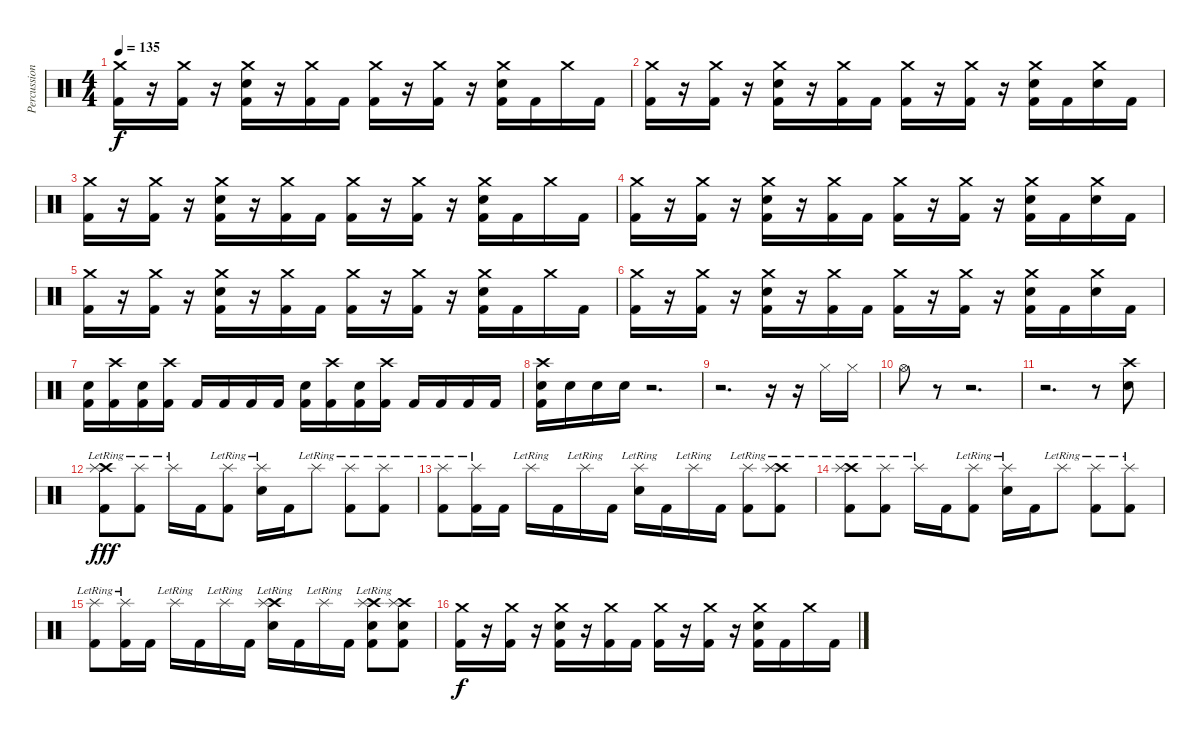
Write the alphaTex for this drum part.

\track ("Percussion" "Percussion") {instrument percussion}
\staff {score}
\articulation defaults
\ts (4 4)
\tempo 135
\clef neutral
\ks c
("Crash medium (hit)" "Kick (hit) 2").16{dy f} r.16 ("Crash medium (hit)" "Kick (hit) 2").16 r.16 ("Crash medium (hit)" "Electric Snare (hit)" "Kick (hit) 2").16 r.16 ("Crash medium (hit)" "Kick (hit) 2").16 "Kick (hit) 2".16 ("Crash medium (hit)" "Kick (hit) 2").16 r.16 ("Crash medium (hit)" "Kick (hit) 2").16 r.16 ("Crash medium (hit)" "Electric Snare (hit)" "Kick (hit) 2").16 "Kick (hit) 2".16 "Crash medium (hit)".16 "Kick (hit) 2".16 |
("Crash medium (hit)" "Kick (hit) 2").16 r.16 ("Crash medium (hit)" "Kick (hit) 2").16 r.16 ("Crash medium (hit)" "Electric Snare (hit)" "Kick (hit) 2").16 r.16 ("Crash medium (hit)" "Kick (hit) 2").16 "Kick (hit) 2".16 ("Crash medium (hit)" "Kick (hit) 2").16 r.16 ("Crash medium (hit)" "Kick (hit) 2").16 r.16 ("Crash medium (hit)" "Electric Snare (hit)" "Kick (hit) 2").16 "Kick (hit) 2".16 ("Crash medium (hit)" "Electric Snare (hit)").16 "Kick (hit) 2".16 |
("Crash medium (hit)" "Kick (hit) 2").16 r.16 ("Crash medium (hit)" "Kick (hit) 2").16 r.16 ("Crash medium (hit)" "Electric Snare (hit)" "Kick (hit) 2").16 r.16 ("Crash medium (hit)" "Kick (hit) 2").16 "Kick (hit) 2".16 ("Crash medium (hit)" "Kick (hit) 2").16 r.16 ("Crash medium (hit)" "Kick (hit) 2").16 r.16 ("Crash medium (hit)" "Electric Snare (hit)" "Kick (hit) 2").16 "Kick (hit) 2".16 "Crash medium (hit)".16 "Kick (hit) 2".16 |
("Crash medium (hit)" "Kick (hit) 2").16 r.16 ("Crash medium (hit)" "Kick (hit) 2").16 r.16 ("Crash medium (hit)" "Electric Snare (hit)" "Kick (hit) 2").16 r.16 ("Crash medium (hit)" "Kick (hit) 2").16 "Kick (hit) 2".16 ("Crash medium (hit)" "Kick (hit) 2").16 r.16 ("Crash medium (hit)" "Kick (hit) 2").16 r.16 ("Crash medium (hit)" "Electric Snare (hit)" "Kick (hit) 2").16 "Kick (hit) 2".16 ("Crash medium (hit)" "Electric Snare (hit)").16 "Kick (hit) 2".16 |
("Crash medium (hit)" "Kick (hit) 2").16 r.16 ("Crash medium (hit)" "Kick (hit) 2").16 r.16 ("Crash medium (hit)" "Electric Snare (hit)" "Kick (hit) 2").16 r.16 ("Crash medium (hit)" "Kick (hit) 2").16 "Kick (hit) 2".16 ("Crash medium (hit)" "Kick (hit) 2").16 r.16 ("Crash medium (hit)" "Kick (hit) 2").16 r.16 ("Crash medium (hit)" "Electric Snare (hit)" "Kick (hit) 2").16 "Kick (hit) 2".16 "Crash medium (hit)".16 "Kick (hit) 2".16 |
("Crash medium (hit)" "Kick (hit) 2").16 r.16 ("Crash medium (hit)" "Kick (hit) 2").16 r.16 ("Crash medium (hit)" "Electric Snare (hit)" "Kick (hit) 2").16 r.16 ("Crash medium (hit)" "Kick (hit) 2").16 "Kick (hit) 2".16 ("Crash medium (hit)" "Kick (hit) 2").16 r.16 ("Crash medium (hit)" "Kick (hit) 2").16 r.16 ("Crash medium (hit)" "Electric Snare (hit)" "Kick (hit) 2").16 "Kick (hit) 2".16 ("Crash medium (hit)" "Electric Snare (hit)").16 "Kick (hit) 2".16 |
("Electric Snare (hit)" "Kick (hit) 2").16 ("Crash high (hit)" "Kick (hit) 2").16 ("Electric Snare (hit)" "Kick (hit) 2").16 ("Crash high (hit)" "Kick (hit) 2").16 "Kick (hit) 2".16 "Kick (hit) 2".16 "Kick (hit) 2".16 "Kick (hit) 2".16 ("Electric Snare (hit)" "Kick (hit) 2").16 ("Crash high (hit)" "Kick (hit) 2").16 ("Electric Snare (hit)" "Kick (hit) 2").16 ("Crash high (hit)" "Kick (hit) 2").16 "Kick (hit) 2".16 "Kick (hit) 2".16 "Kick (hit) 2".16 "Kick (hit) 2".16 |
("Crash high (hit)" "Electric Snare (hit)" "Kick (hit) 2").16 "Electric Snare (hit)".16 "Electric Snare (hit)".16 "Electric Snare (hit)".16 r.2{d} |
r.2{d} r.16 r.16 "Hi-Hat (closed)".16 "Hi-Hat (closed)".16 |
"Hi-Hat (open)".8 r.8 r.2{d} |
r.2{d} r.8 ("Crash high (hit)" "Electric Snare (hit)").8 |
("Crash high (hit)"{lr} "Splash (hit)"{lr} "Kick (hit) 2").8{dy fff} ("Splash (hit)"{lr} "Kick (hit) 2").8 "Splash (hit)"{lr}.16 "Kick (hit) 2".16 ("Splash (hit)"{lr} "Kick (hit) 2").8 ("Splash (hit)"{lr} "Electric Snare (hit)").16 "Kick (hit) 2".16 "Splash (hit)"{lr}.8 ("Splash (hit)"{lr} "Kick (hit) 2").8 ("Splash (hit)"{lr} "Kick (hit) 2").8 |
("Splash (hit)"{lr} "Kick (hit) 2").8 ("Splash (hit)"{lr} "Kick (hit) 2").16 "Kick (hit) 2".16 "Splash (hit)"{lr}.16 "Kick (hit) 2".16 "Splash (hit)"{lr}.16 "Kick (hit) 2".16 ("Splash (hit)"{lr} "Electric Snare (hit)").16 "Kick (hit) 2".16 "Splash (hit)"{lr}.16 "Kick (hit) 2".16 ("Splash (hit)"{lr} "Kick (hit) 2").8 ("Crash high (hit)" "Splash (hit)"{lr} "Kick (hit) 2").8 |
("Crash high (hit)"{lr} "Splash (hit)"{lr} "Kick (hit) 2").8 ("Splash (hit)"{lr} "Kick (hit) 2").8 "Splash (hit)"{lr}.16 "Kick (hit) 2".16 ("Splash (hit)"{lr} "Kick (hit) 2").8 ("Splash (hit)"{lr} "Electric Snare (hit)").16 "Kick (hit) 2".16 "Splash (hit)"{lr}.8 ("Splash (hit)"{lr} "Kick (hit) 2").8 ("Splash (hit)"{lr} "Kick (hit) 2").8 |
("Splash (hit)"{lr} "Kick (hit) 2").8 ("Splash (hit)"{lr} "Kick (hit) 2").16 "Kick (hit) 2".16 "Splash (hit)"{lr}.16 "Kick (hit) 2".16 "Splash (hit)"{lr}.16 "Kick (hit) 2".16 ("Crash high (hit)" "Splash (hit)"{lr} "Electric Snare (hit)").16 "Kick (hit) 2".16 "Splash (hit)"{lr}.16 "Kick (hit) 2".16 ("Crash high (hit)" "Splash (hit)"{lr} "Electric Snare (hit)" "Kick (hit) 2").8 ("Crash high (hit)" "Splash (hit)"{lr} "Electric Snare (hit)" "Kick (hit) 2").8 |
("Crash medium (hit)" "Kick (hit) 2").16{dy f} r.16 ("Crash medium (hit)" "Kick (hit) 2").16 r.16 ("Crash medium (hit)" "Electric Snare (hit)" "Kick (hit) 2").16 r.16 ("Crash medium (hit)" "Kick (hit) 2").16 "Kick (hit) 2".16 ("Crash medium (hit)" "Kick (hit) 2").16 r.16 ("Crash medium (hit)" "Kick (hit) 2").16 r.16 ("Crash medium (hit)" "Electric Snare (hit)" "Kick (hit) 2").16 "Kick (hit) 2".16 "Crash medium (hit)".16 "Kick (hit) 2".16
